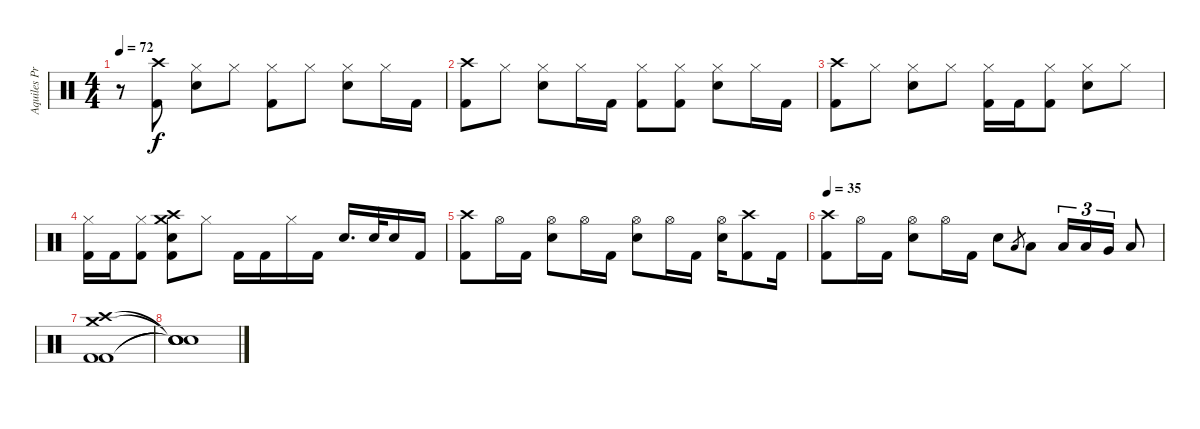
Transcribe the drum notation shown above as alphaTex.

\track ("Aquiles Priester" "Aquiles Pr") {instrument percussion}
\staff {score}
\articulation defaults
\ts (4 4)
\tempo 72
\clef neutral
\ks c
r.8{dy f} ("Crash high (hit)" "Kick (hit) 2").8 ("Hi-Hat (closed)" "Electric Snare (hit)").8 "Hi-Hat (closed)".8 ("Hi-Hat (closed)" "Kick (hit) 2").8 "Hi-Hat (closed)".8 ("Hi-Hat (closed)" "Electric Snare (hit)").8 "Hi-Hat (closed)".16 "Kick (hit) 2".16 |
("Crash high (hit)" "Kick (hit) 2").8 "Hi-Hat (closed)".8 ("Hi-Hat (closed)" "Electric Snare (hit)").8 "Hi-Hat (closed)".16 "Kick (hit) 2".16 ("Hi-Hat (closed)" "Kick (hit) 2").8 ("Hi-Hat (closed)" "Kick (hit) 2").8 ("Hi-Hat (closed)" "Electric Snare (hit)").8 "Hi-Hat (closed)".16 "Kick (hit) 2".16 |
("Crash high (hit)" "Kick (hit) 2").8 "Hi-Hat (closed)".8 ("Hi-Hat (closed)" "Electric Snare (hit)").8 "Hi-Hat (closed)".8 ("Hi-Hat (closed)" "Kick (hit) 2").16 "Kick (hit) 2".16 ("Hi-Hat (closed)" "Kick (hit) 2").8 ("Hi-Hat (closed)" "Electric Snare (hit)").8 "Hi-Hat (closed)".8 |
("Hi-Hat (closed)" "Kick (hit) 2").16 "Kick (hit) 2".16 ("Hi-Hat (closed)" "Kick (hit) 2").8 ("Crash high (hit)" "Crash medium (hit)" "Electric Snare (hit)" "Kick (hit) 2").8 "Hi-Hat (closed)".8 "Kick (hit) 2".16 "Kick (hit) 2".16 "Hi-Hat (closed)".16 "Kick (hit) 2".16 "Electric Snare (hit)".16{d} "Electric Snare (hit)".32 "Electric Snare (hit)".16 "Kick (hit) 2".16 |
("Crash high (hit)" "Kick (hit) 2").8 "Hi-Hat (open)".16 "Kick (hit) 2".16 ("Hi-Hat (open)" "Electric Snare (hit)").8 "Hi-Hat (open)".16 "Kick (hit) 2".16 ("Hi-Hat (open)" "Electric Snare (hit)").8 "Hi-Hat (open)".16 "Kick (hit) 2".16 ("Hi-Hat (open)" "Electric Snare (hit)").16 ("Crash high (hit)" "Kick (hit) 2").8 "Kick (hit) 2".16 |
\tempo 35
("Crash high (hit)" "Kick (hit) 2").8 "Hi-Hat (open)".16 "Kick (hit) 2".16 ("Hi-Hat (open)" "Electric Snare (hit)").8 "Hi-Hat (open)".16 "Kick (hit) 2".16 "Electric Snare (hit)".8 "Low Tom (hit)".8{gr} "Low Tom (hit)".8 "Low Tom (hit)".16{tu (3 2)} "Low Tom (hit)".16{tu (3 2)} "Very Low Tom (hit)".16{tu (3 2)} "Low Floor Tom (hit)".8 |
("Crash high (hit)" "Crash medium (hit)" "Kick (hit) 2" "Kick (hit) 2").1 |
("Snare (hit)"{t} "Snare (hit)"{t} "Snare (hit)"{t} "Snare (hit)"{t}).1
